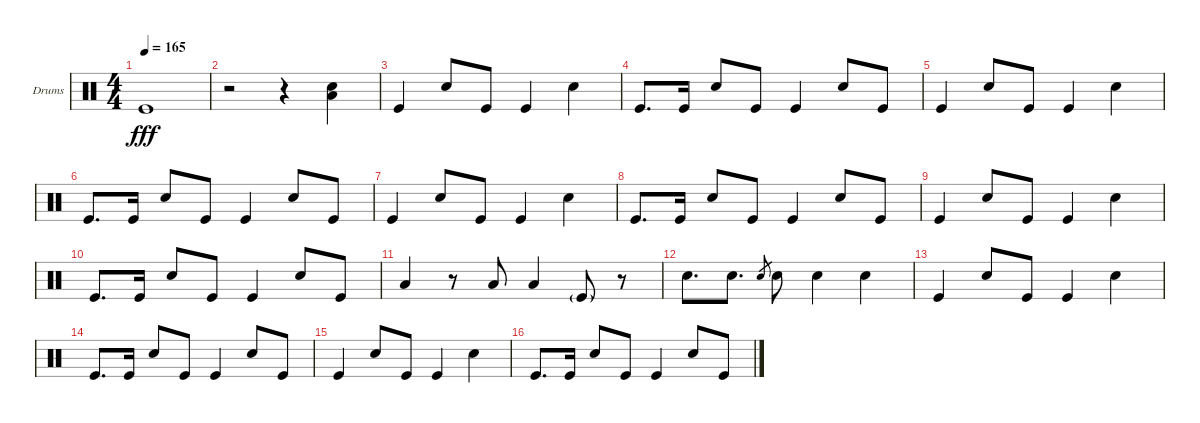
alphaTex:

\defaultSystemsLayout 4
\bracketExtendMode groupsimilarinstruments
\firstSystemTrackNameOrientation horizontal
\otherSystemsTrackNameOrientation horizontal
\track ("Helders" "Drums") {instrument percussion}
\staff {score}
\articulation defaults
\ts (4 4)
\tempo 165
\clef neutral
\ks c "Kick (hit)".1{dy fff}
|
r.2 r.4 ("Snare (hit) 2" "Low Tom (hit)").4 |
"Kick (hit)".4 "Snare (hit) 2".8 "Kick (hit)".8 "Kick (hit)".4 "Snare (hit) 2".4 |
"Kick (hit)".8{d} "Kick (hit)".16 "Snare (hit) 2".8 "Kick (hit)".8 "Kick (hit)".4 "Snare (hit) 2".8 "Kick (hit)".8 |
"Kick (hit)".4 "Snare (hit) 2".8 "Kick (hit)".8 "Kick (hit)".4 "Snare (hit) 2".4 |
"Kick (hit)".8{d} "Kick (hit)".16 "Snare (hit) 2".8 "Kick (hit)".8 "Kick (hit)".4 "Snare (hit) 2".8 "Kick (hit)".8 |
"Kick (hit)".4 "Snare (hit) 2".8 "Kick (hit)".8 "Kick (hit)".4 "Snare (hit) 2".4 |
"Kick (hit)".8{d} "Kick (hit)".16 "Snare (hit) 2".8 "Kick (hit)".8 "Kick (hit)".4 "Snare (hit) 2".8 "Kick (hit)".8 |
"Kick (hit)".4 "Snare (hit) 2".8 "Kick (hit)".8 "Kick (hit)".4 "Snare (hit) 2".4 |
"Kick (hit)".8{d} "Kick (hit)".16 "Snare (hit) 2".8 "Kick (hit)".8 "Kick (hit)".4 "Snare (hit) 2".8 "Kick (hit)".8 |
"Low Tom (hit)".4 r.8 "Low Tom (hit)".8 "Low Tom (hit)".4 "Kick (hit)"{g}.8 r.8 |
"Snare (hit) 2".8{d} "Snare (hit) 2".8{d} "Snare (hit) 2".8{gr} "Snare (hit) 2".8 "Snare (hit) 2".4 "Snare (hit) 2".4 |
"Kick (hit)".4 "Snare (hit) 2".8 "Kick (hit)".8 "Kick (hit)".4 "Snare (hit) 2".4 |
"Kick (hit)".8{d} "Kick (hit)".16 "Snare (hit) 2".8 "Kick (hit)".8 "Kick (hit)".4 "Snare (hit) 2".8 "Kick (hit)".8 |
"Kick (hit)".4 "Snare (hit) 2".8 "Kick (hit)".8 "Kick (hit)".4 "Snare (hit) 2".4 |
"Kick (hit)".8{d} "Kick (hit)".16 "Snare (hit) 2".8 "Kick (hit)".8 "Kick (hit)".4 "Snare (hit) 2".8 "Kick (hit)".8
